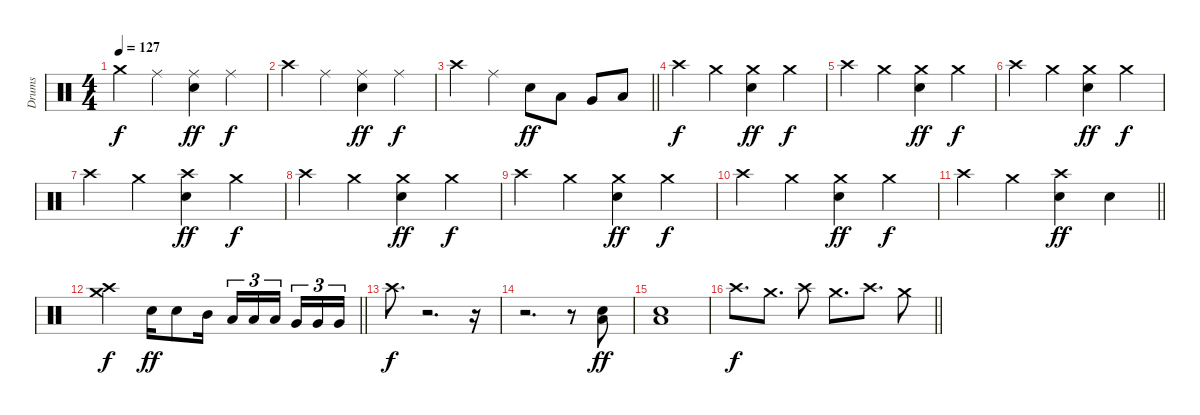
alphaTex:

\track ("Drums" "Drums") {instrument percussion}
\staff {score}
\articulation defaults
\ts (4 4)
\tempo 127
\clef neutral
\ks c "Crash medium (hit)".4{dy f} "Ride (middle)".4
("Ride (middle)" "Snare (hit) 2").4{dy ff} "Ride (middle)".4{dy f} |
"Crash high (hit)".4 "Ride (middle)".4 ("Ride (middle)" "Snare (hit) 2").4{dy ff} "Ride (middle)".4{dy f} |
\barLineRight lightlight "Crash high (hit)".4 "Ride (middle)".4 "Snare (hit) 2".8{dy ff} "Low Tom (hit)".8 "Very Low Tom (hit)".8 "Low Floor Tom (hit)".8
|
\section ("" "")
"Crash high (hit)".4{dy f} "Crash medium (hit)".4 ("Crash medium (hit)" "Snare (hit) 2").4{dy ff} "Crash medium (hit)".4{dy f} |
"Crash high (hit)".4 "Crash medium (hit)".4 ("Crash medium (hit)" "Snare (hit) 2").4{dy ff} "Crash medium (hit)".4{dy f} |
"Crash high (hit)".4 "Crash medium (hit)".4 ("Crash medium (hit)" "Snare (hit) 2").4{dy ff} "Crash medium (hit)".4{dy f} |
"Crash high (hit)".4 "Crash medium (hit)".4 ("Crash high (hit)" "Snare (hit) 2").4{dy ff} "Crash medium (hit)".4{dy f} |
"Crash high (hit)".4 "Crash medium (hit)".4 ("Crash medium (hit)" "Snare (hit) 2").4{dy ff} "Crash medium (hit)".4{dy f} |
"Crash high (hit)".4 "Crash medium (hit)".4 ("Crash medium (hit)" "Snare (hit) 2").4{dy ff} "Crash medium (hit)".4{dy f} |
"Crash high (hit)".4 "Crash medium (hit)".4 ("Crash medium (hit)" "Snare (hit) 2").4{dy ff} "Crash medium (hit)".4{dy f} |
\barLineRight lightlight "Crash high (hit)".4 "Crash medium (hit)".4
("Crash high (hit)" "Snare (hit) 2").4{dy ff} "Snare (hit) 2".4 |
\section ("" "")
\barLineRight lightlight
("Crash high (hit)" "Crash medium (hit)").2{dy f} "Snare (hit) 2".16{dy ff} "Snare (hit) 2".8 "Mid Tom (hit)".16 "Low Tom (hit)".16{tu (3 2)} "Low Tom (hit)".16{tu (3 2)} "Low Tom (hit)".16{tu (3 2) beam splitsecondary} "Very Low Tom (hit)".16{tu (3 2)} "Very Low Tom (hit)".16{tu (3 2)} "Very Low Tom (hit)".16{tu (3 2)} |
\section ("" "")
"Crash high (hit)".8{d dy f} r.2{d volume 0} r.16 |
r.2{d} r.8 ("Snare (hit) 2" "Low Floor Tom (hit)").8{dy ff volume 11} |
("Snare (hit) 2" "Low Floor Tom (hit)").1 |
\barLineRight lightlight "Crash high (hit)".8{d dy f} "Crash medium (hit)".8{d} "Crash high (hit)".8 "Crash medium (hit)".8{d} "Crash high (hit)".8{d} "Crash medium (hit)".8
